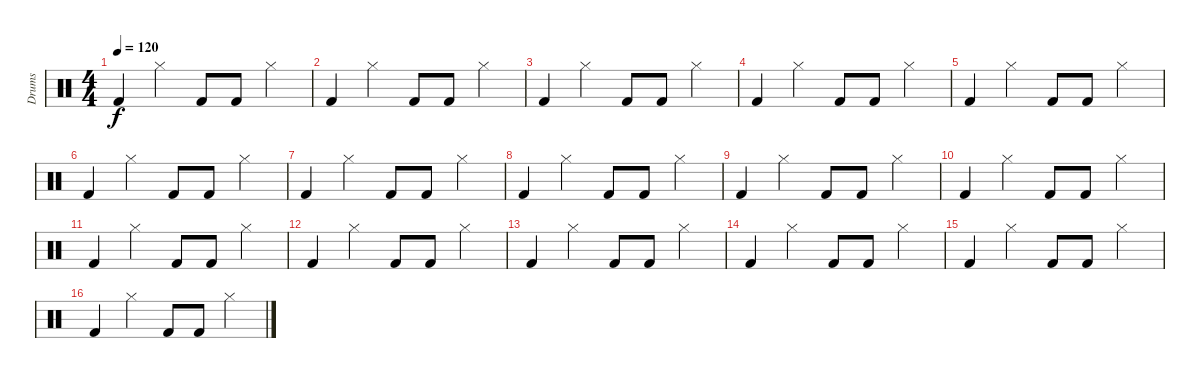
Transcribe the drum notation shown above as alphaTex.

\track ("Drums" "Drums") {instrument percussion}
\staff {score}
\articulation defaults
\ts (4 4)
\tempo 120
\clef neutral
\ks c "Kick (hit) 2".4{dy f} "Hi-Hat (closed)".4 "Kick (hit) 2".8 "Kick (hit) 2".8 "Hi-Hat (closed)".4
|
"Kick (hit) 2".4 "Hi-Hat (closed)".4 "Kick (hit) 2".8 "Kick (hit) 2".8 "Hi-Hat (closed)".4 |
"Kick (hit) 2".4 "Hi-Hat (closed)".4 "Kick (hit) 2".8 "Kick (hit) 2".8 "Hi-Hat (closed)".4 |
"Kick (hit) 2".4 "Hi-Hat (closed)".4 "Kick (hit) 2".8 "Kick (hit) 2".8 "Hi-Hat (closed)".4 |
"Kick (hit) 2".4 "Hi-Hat (closed)".4 "Kick (hit) 2".8 "Kick (hit) 2".8 "Hi-Hat (closed)".4 |
"Kick (hit) 2".4 "Hi-Hat (closed)".4 "Kick (hit) 2".8 "Kick (hit) 2".8 "Hi-Hat (closed)".4 |
"Kick (hit) 2".4 "Hi-Hat (closed)".4 "Kick (hit) 2".8 "Kick (hit) 2".8 "Hi-Hat (closed)".4 |
"Kick (hit) 2".4 "Hi-Hat (closed)".4 "Kick (hit) 2".8 "Kick (hit) 2".8 "Hi-Hat (closed)".4 |
"Kick (hit) 2".4 "Hi-Hat (closed)".4 "Kick (hit) 2".8 "Kick (hit) 2".8 "Hi-Hat (closed)".4 |
"Kick (hit) 2".4 "Hi-Hat (closed)".4 "Kick (hit) 2".8 "Kick (hit) 2".8 "Hi-Hat (closed)".4 |
"Kick (hit) 2".4 "Hi-Hat (closed)".4 "Kick (hit) 2".8 "Kick (hit) 2".8 "Hi-Hat (closed)".4 |
"Kick (hit) 2".4 "Hi-Hat (closed)".4 "Kick (hit) 2".8 "Kick (hit) 2".8 "Hi-Hat (closed)".4 |
"Kick (hit) 2".4 "Hi-Hat (closed)".4 "Kick (hit) 2".8 "Kick (hit) 2".8 "Hi-Hat (closed)".4 |
"Kick (hit) 2".4 "Hi-Hat (closed)".4 "Kick (hit) 2".8 "Kick (hit) 2".8 "Hi-Hat (closed)".4 |
"Kick (hit) 2".4 "Hi-Hat (closed)".4 "Kick (hit) 2".8 "Kick (hit) 2".8 "Hi-Hat (closed)".4 |
"Kick (hit) 2".4 "Hi-Hat (closed)".4 "Kick (hit) 2".8 "Kick (hit) 2".8 "Hi-Hat (closed)".4
